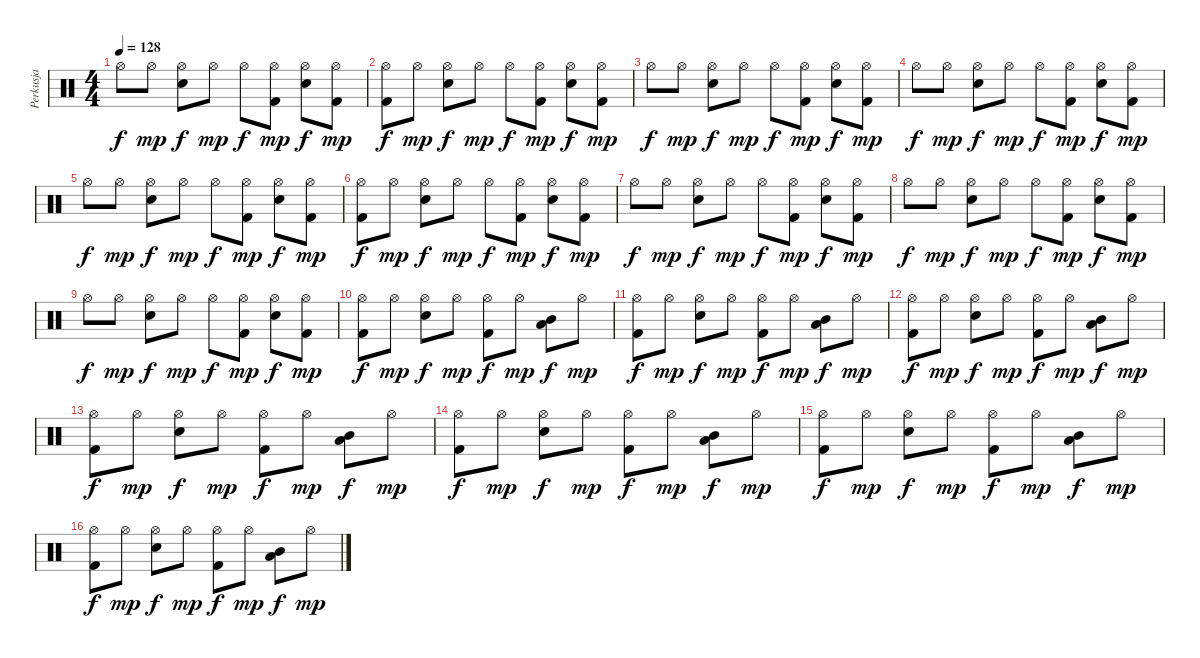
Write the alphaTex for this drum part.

\track ("Perkusja" "Perkusja") {instrument percussion}
\staff {score}
\articulation defaults
\ts (4 4)
\tempo 128
\clef neutral
\ks c "Hi-Hat (open)".8{dy f} "Hi-Hat (open)".8{dy mp}
("Hi-Hat (open)" "Electric Snare (hit)").8{dy f} "Hi-Hat (open)".8{dy mp} "Hi-Hat (open)".8{dy f} ("Hi-Hat (open)" "Kick (hit) 2").8{dy mp} ("Hi-Hat (open)" "Electric Snare (hit)").8{dy f} ("Hi-Hat (open)" "Kick (hit) 2").8{dy mp} |
("Hi-Hat (open)" "Kick (hit) 2").8{dy f} "Hi-Hat (open)".8{dy mp} ("Hi-Hat (open)" "Electric Snare (hit)").8{dy f} "Hi-Hat (open)".8{dy mp} "Hi-Hat (open)".8{dy f} ("Hi-Hat (open)" "Kick (hit) 2").8{dy mp} ("Hi-Hat (open)" "Electric Snare (hit)").8{dy f} ("Hi-Hat (open)" "Kick (hit) 2").8{dy mp} |
"Hi-Hat (open)".8{dy f} "Hi-Hat (open)".8{dy mp} ("Hi-Hat (open)" "Electric Snare (hit)").8{dy f} "Hi-Hat (open)".8{dy mp} "Hi-Hat (open)".8{dy f} ("Hi-Hat (open)" "Kick (hit) 2").8{dy mp} ("Hi-Hat (open)" "Electric Snare (hit)").8{dy f} ("Hi-Hat (open)" "Kick (hit) 2").8{dy mp} |
"Hi-Hat (open)".8{dy f} "Hi-Hat (open)".8{dy mp} ("Hi-Hat (open)" "Electric Snare (hit)").8{dy f} "Hi-Hat (open)".8{dy mp} "Hi-Hat (open)".8{dy f} ("Hi-Hat (open)" "Kick (hit) 2").8{dy mp} ("Hi-Hat (open)" "Electric Snare (hit)").8{dy f} ("Hi-Hat (open)" "Kick (hit) 2").8{dy mp} |
"Hi-Hat (open)".8{dy f} "Hi-Hat (open)".8{dy mp} ("Hi-Hat (open)" "Electric Snare (hit)").8{dy f} "Hi-Hat (open)".8{dy mp} "Hi-Hat (open)".8{dy f} ("Hi-Hat (open)" "Kick (hit) 2").8{dy mp} ("Hi-Hat (open)" "Electric Snare (hit)").8{dy f} ("Hi-Hat (open)" "Kick (hit) 2").8{dy mp} |
("Hi-Hat (open)" "Kick (hit) 2").8{dy f} "Hi-Hat (open)".8{dy mp} ("Hi-Hat (open)" "Electric Snare (hit)").8{dy f} "Hi-Hat (open)".8{dy mp} "Hi-Hat (open)".8{dy f} ("Hi-Hat (open)" "Kick (hit) 2").8{dy mp} ("Hi-Hat (open)" "Electric Snare (hit)").8{dy f} ("Hi-Hat (open)" "Kick (hit) 2").8{dy mp} |
"Hi-Hat (open)".8{dy f} "Hi-Hat (open)".8{dy mp} ("Hi-Hat (open)" "Electric Snare (hit)").8{dy f} "Hi-Hat (open)".8{dy mp} "Hi-Hat (open)".8{dy f} ("Hi-Hat (open)" "Kick (hit) 2").8{dy mp} ("Hi-Hat (open)" "Electric Snare (hit)").8{dy f} ("Hi-Hat (open)" "Kick (hit) 2").8{dy mp} |
"Hi-Hat (open)".8{dy f} "Hi-Hat (open)".8{dy mp} ("Hi-Hat (open)" "Electric Snare (hit)").8{dy f} "Hi-Hat (open)".8{dy mp} "Hi-Hat (open)".8{dy f} ("Hi-Hat (open)" "Kick (hit) 2").8{dy mp} ("Hi-Hat (open)" "Electric Snare (hit)").8{dy f} ("Hi-Hat (open)" "Kick (hit) 2").8{dy mp} |
"Hi-Hat (open)".8{dy f} "Hi-Hat (open)".8{dy mp} ("Hi-Hat (open)" "Electric Snare (hit)").8{dy f} "Hi-Hat (open)".8{dy mp} "Hi-Hat (open)".8{dy f} ("Hi-Hat (open)" "Kick (hit) 2").8{dy mp} ("Hi-Hat (open)" "Electric Snare (hit)").8{dy f} ("Hi-Hat (open)" "Kick (hit) 2").8{dy mp} |
("Hi-Hat (open)" "Kick (hit) 2").8{dy f} "Hi-Hat (open)".8{dy mp} ("Hi-Hat (open)" "Electric Snare (hit)").8{dy f} "Hi-Hat (open)".8{dy mp} ("Hi-Hat (open)" "Kick (hit) 2").8{dy f} "Hi-Hat (open)".8{dy mp} ("Mid Tom (hit)" "Low Tom (hit)").8{dy f} "Hi-Hat (open)".8{dy mp} |
("Hi-Hat (open)" "Kick (hit) 2").8{dy f} "Hi-Hat (open)".8{dy mp} ("Hi-Hat (open)" "Electric Snare (hit)").8{dy f} "Hi-Hat (open)".8{dy mp} ("Hi-Hat (open)" "Kick (hit) 2").8{dy f} "Hi-Hat (open)".8{dy mp} ("Mid Tom (hit)" "Low Tom (hit)").8{dy f} "Hi-Hat (open)".8{dy mp} |
("Hi-Hat (open)" "Kick (hit) 2").8{dy f} "Hi-Hat (open)".8{dy mp} ("Hi-Hat (open)" "Electric Snare (hit)").8{dy f} "Hi-Hat (open)".8{dy mp} ("Hi-Hat (open)" "Kick (hit) 2").8{dy f} "Hi-Hat (open)".8{dy mp} ("Mid Tom (hit)" "Low Tom (hit)").8{dy f} "Hi-Hat (open)".8{dy mp} |
("Hi-Hat (open)" "Kick (hit) 2").8{dy f} "Hi-Hat (open)".8{dy mp} ("Hi-Hat (open)" "Electric Snare (hit)").8{dy f} "Hi-Hat (open)".8{dy mp} ("Hi-Hat (open)" "Kick (hit) 2").8{dy f} "Hi-Hat (open)".8{dy mp} ("Mid Tom (hit)" "Low Tom (hit)").8{dy f} "Hi-Hat (open)".8{dy mp} |
("Hi-Hat (open)" "Kick (hit) 2").8{dy f} "Hi-Hat (open)".8{dy mp} ("Hi-Hat (open)" "Electric Snare (hit)").8{dy f} "Hi-Hat (open)".8{dy mp} ("Hi-Hat (open)" "Kick (hit) 2").8{dy f} "Hi-Hat (open)".8{dy mp} ("Mid Tom (hit)" "Low Tom (hit)").8{dy f} "Hi-Hat (open)".8{dy mp} |
("Hi-Hat (open)" "Kick (hit) 2").8{dy f} "Hi-Hat (open)".8{dy mp} ("Hi-Hat (open)" "Electric Snare (hit)").8{dy f} "Hi-Hat (open)".8{dy mp} ("Hi-Hat (open)" "Kick (hit) 2").8{dy f} "Hi-Hat (open)".8{dy mp} ("Mid Tom (hit)" "Low Tom (hit)").8{dy f} "Hi-Hat (open)".8{dy mp} |
("Hi-Hat (open)" "Kick (hit) 2").8{dy f} "Hi-Hat (open)".8{dy mp} ("Hi-Hat (open)" "Electric Snare (hit)").8{dy f} "Hi-Hat (open)".8{dy mp} ("Hi-Hat (open)" "Kick (hit) 2").8{dy f} "Hi-Hat (open)".8{dy mp} ("Mid Tom (hit)" "Low Tom (hit)").8{dy f} "Hi-Hat (open)".8{dy mp}
